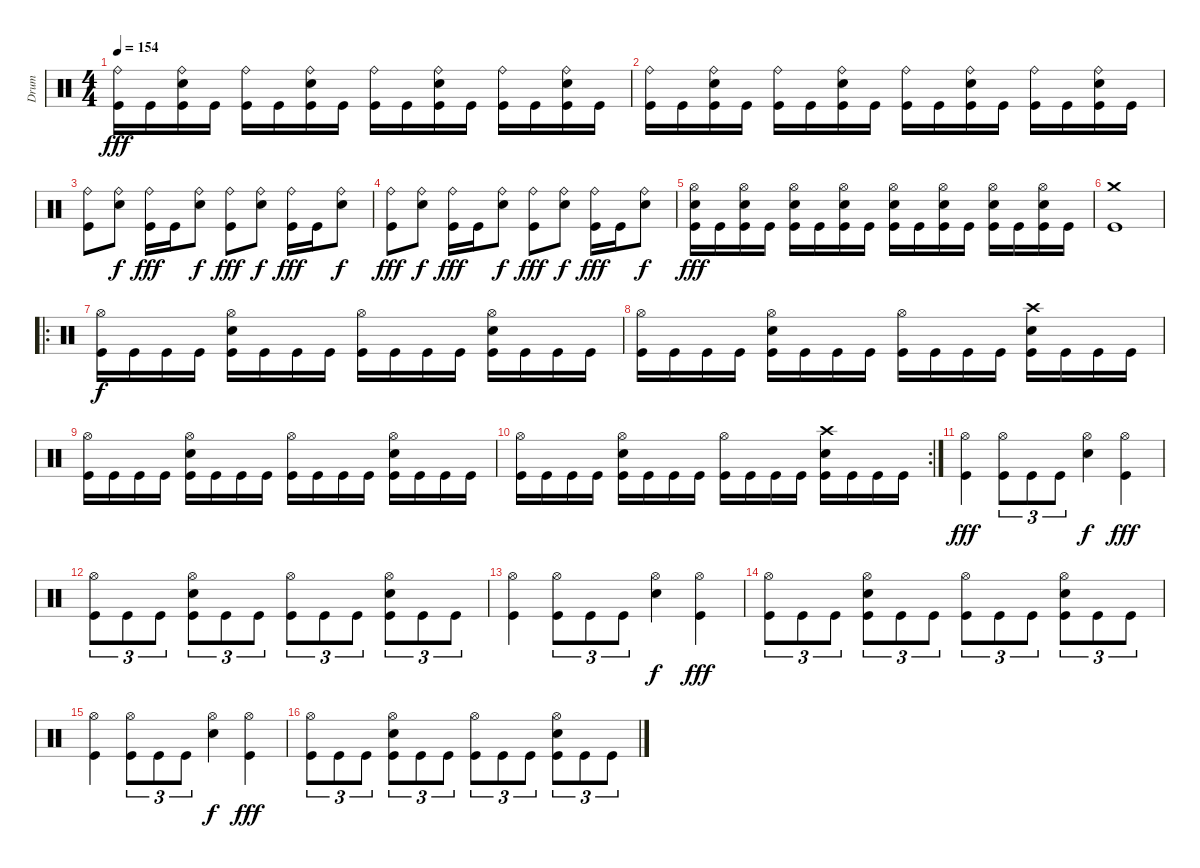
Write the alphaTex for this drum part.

\track ("Drum" "Drum") {instrument percussion}
\staff {score}
\articulation defaults
\ts (4 4)
\tempo 154
\clef neutral
\ks c
("Ride (bell)" "Kick (hit)").16{dy fff} "Kick (hit)".16 ("Ride (bell)" "Snare (hit) 2" "Kick (hit)").16 "Kick (hit)".16 ("Ride (bell)" "Kick (hit)").16 "Kick (hit)".16 ("Ride (bell)" "Snare (hit) 2" "Kick (hit)").16 "Kick (hit)".16 ("Ride (bell)" "Kick (hit)").16 "Kick (hit)".16 ("Ride (bell)" "Snare (hit) 2" "Kick (hit)").16 "Kick (hit)".16 ("Ride (bell)" "Kick (hit)").16 "Kick (hit)".16 ("Ride (bell)" "Snare (hit) 2" "Kick (hit)").16 "Kick (hit)".16 |
("Ride (bell)" "Kick (hit)").16 "Kick (hit)".16 ("Ride (bell)" "Snare (hit) 2" "Kick (hit)").16 "Kick (hit)".16 ("Ride (bell)" "Kick (hit)").16 "Kick (hit)".16 ("Ride (bell)" "Snare (hit) 2" "Kick (hit)").16 "Kick (hit)".16 ("Ride (bell)" "Kick (hit)").16 "Kick (hit)".16 ("Ride (bell)" "Snare (hit) 2" "Kick (hit)").16 "Kick (hit)".16 ("Ride (bell)" "Kick (hit)").16 "Kick (hit)".16 ("Ride (bell)" "Snare (hit) 2" "Kick (hit)").16 "Kick (hit)".16 |
("Ride (bell)" "Kick (hit)").8 ("Ride (bell)" "Snare (hit) 2").8{dy f} ("Ride (bell)" "Kick (hit)").16{dy fff} "Kick (hit)".16 ("Ride (bell)" "Snare (hit) 2").8{dy f} ("Ride (bell)" "Kick (hit)").8{dy fff} ("Ride (bell)" "Snare (hit) 2").8{dy f} ("Ride (bell)" "Kick (hit)").16{dy fff} "Kick (hit)".16 ("Ride (bell)" "Snare (hit) 2").8{dy f} |
("Ride (bell)" "Kick (hit)").8{dy fff} ("Ride (bell)" "Snare (hit) 2").8{dy f} ("Ride (bell)" "Kick (hit)").16{dy fff} "Kick (hit)".16 ("Ride (bell)" "Snare (hit) 2").8{dy f} ("Ride (bell)" "Kick (hit)").8{dy fff} ("Ride (bell)" "Snare (hit) 2").8{dy f} ("Ride (bell)" "Kick (hit)").16{dy fff} "Kick (hit)".16 ("Ride (bell)" "Snare (hit) 2").8{dy f} |
("Hi-Hat (open)" "Snare (hit) 2" "Kick (hit)").16{dy fff} "Kick (hit)".16 ("Hi-Hat (open)" "Snare (hit) 2" "Kick (hit)").16 "Kick (hit)".16 ("Hi-Hat (open)" "Snare (hit) 2" "Kick (hit)").16 "Kick (hit)".16 ("Hi-Hat (open)" "Snare (hit) 2" "Kick (hit)").16 "Kick (hit)".16 ("Hi-Hat (open)" "Snare (hit) 2" "Kick (hit)").16 "Kick (hit)".16 ("Hi-Hat (open)" "Snare (hit) 2" "Kick (hit)").16 "Kick (hit)".16 ("Hi-Hat (open)" "Snare (hit) 2" "Kick (hit)").16 "Kick (hit)".16 ("Hi-Hat (open)" "Snare (hit) 2" "Kick (hit)").16 "Kick (hit)".16 |
("Crash medium (hit)" "Kick (hit)").1 |
\ro
("Hi-Hat (open)" "Kick (hit)").16{dy f} "Kick (hit)".16 "Kick (hit)".16 "Kick (hit)".16 ("Hi-Hat (open)" "Snare (hit) 2" "Kick (hit)").16 "Kick (hit)".16 "Kick (hit)".16 "Kick (hit)".16 ("Hi-Hat (open)" "Kick (hit)").16 "Kick (hit)".16 "Kick (hit)".16 "Kick (hit)".16 ("Hi-Hat (open)" "Snare (hit) 2" "Kick (hit)").16 "Kick (hit)".16 "Kick (hit)".16 "Kick (hit)".16 |
("Hi-Hat (open)" "Kick (hit)").16 "Kick (hit)".16 "Kick (hit)".16 "Kick (hit)".16 ("Hi-Hat (open)" "Snare (hit) 2" "Kick (hit)").16 "Kick (hit)".16 "Kick (hit)".16 "Kick (hit)".16 ("Hi-Hat (open)" "Kick (hit)").16 "Kick (hit)".16 "Kick (hit)".16 "Kick (hit)".16 ("Crash high (hit)" "Snare (hit) 2" "Kick (hit)").16 "Kick (hit)".16 "Kick (hit)".16 "Kick (hit)".16 |
("Hi-Hat (open)" "Kick (hit)").16 "Kick (hit)".16 "Kick (hit)".16 "Kick (hit)".16 ("Hi-Hat (open)" "Snare (hit) 2" "Kick (hit)").16 "Kick (hit)".16 "Kick (hit)".16 "Kick (hit)".16 ("Hi-Hat (open)" "Kick (hit)").16 "Kick (hit)".16 "Kick (hit)".16 "Kick (hit)".16 ("Hi-Hat (open)" "Snare (hit) 2" "Kick (hit)").16 "Kick (hit)".16 "Kick (hit)".16 "Kick (hit)".16 |
\rc 2
("Hi-Hat (open)" "Kick (hit)").16 "Kick (hit)".16 "Kick (hit)".16 "Kick (hit)".16 ("Hi-Hat (open)" "Snare (hit) 2" "Kick (hit)").16 "Kick (hit)".16 "Kick (hit)".16 "Kick (hit)".16 ("Hi-Hat (open)" "Kick (hit)").16 "Kick (hit)".16 "Kick (hit)".16 "Kick (hit)".16 ("Crash high (hit)" "Snare (hit) 2" "Kick (hit)").16 "Kick (hit)".16 "Kick (hit)".16 "Kick (hit)".16 |
("Hi-Hat (open)" "Kick (hit)").4{dy fff} ("Hi-Hat (open)" "Kick (hit)").8{tu (3 2)} "Kick (hit)".8{tu (3 2)} "Kick (hit)".8{tu (3 2)} ("Hi-Hat (open)" "Snare (hit) 2").4{dy f} ("Hi-Hat (open)" "Kick (hit)").4{dy fff} |
("Hi-Hat (open)" "Kick (hit)").8{tu (3 2)} "Kick (hit)".8{tu (3 2)} "Kick (hit)".8{tu (3 2)} ("Hi-Hat (open)" "Snare (hit) 2" "Kick (hit)").8{tu (3 2)} "Kick (hit)".8{tu (3 2)} "Kick (hit)".8{tu (3 2)} ("Hi-Hat (open)" "Kick (hit)").8{tu (3 2)} "Kick (hit)".8{tu (3 2)} "Kick (hit)".8{tu (3 2)} ("Hi-Hat (open)" "Snare (hit) 2" "Kick (hit)").8{tu (3 2)} "Kick (hit)".8{tu (3 2)} "Kick (hit)".8{tu (3 2)} |
("Hi-Hat (open)" "Kick (hit)").4 ("Hi-Hat (open)" "Kick (hit)").8{tu (3 2)} "Kick (hit)".8{tu (3 2)} "Kick (hit)".8{tu (3 2)} ("Hi-Hat (open)" "Snare (hit) 2").4{dy f} ("Hi-Hat (open)" "Kick (hit)").4{dy fff} |
("Hi-Hat (open)" "Kick (hit)").8{tu (3 2)} "Kick (hit)".8{tu (3 2)} "Kick (hit)".8{tu (3 2)} ("Hi-Hat (open)" "Snare (hit) 2" "Kick (hit)").8{tu (3 2)} "Kick (hit)".8{tu (3 2)} "Kick (hit)".8{tu (3 2)} ("Hi-Hat (open)" "Kick (hit)").8{tu (3 2)} "Kick (hit)".8{tu (3 2)} "Kick (hit)".8{tu (3 2)} ("Hi-Hat (open)" "Snare (hit) 2" "Kick (hit)").8{tu (3 2)} "Kick (hit)".8{tu (3 2)} "Kick (hit)".8{tu (3 2)} |
("Hi-Hat (open)" "Kick (hit)").4 ("Hi-Hat (open)" "Kick (hit)").8{tu (3 2)} "Kick (hit)".8{tu (3 2)} "Kick (hit)".8{tu (3 2)} ("Hi-Hat (open)" "Snare (hit) 2").4{dy f} ("Hi-Hat (open)" "Kick (hit)").4{dy fff} |
("Hi-Hat (open)" "Kick (hit)").8{tu (3 2)} "Kick (hit)".8{tu (3 2)} "Kick (hit)".8{tu (3 2)} ("Hi-Hat (open)" "Snare (hit) 2" "Kick (hit)").8{tu (3 2)} "Kick (hit)".8{tu (3 2)} "Kick (hit)".8{tu (3 2)} ("Hi-Hat (open)" "Kick (hit)").8{tu (3 2)} "Kick (hit)".8{tu (3 2)} "Kick (hit)".8{tu (3 2)} ("Hi-Hat (open)" "Snare (hit) 2" "Kick (hit)").8{tu (3 2)} "Kick (hit)".8{tu (3 2)} "Kick (hit)".8{tu (3 2)}
